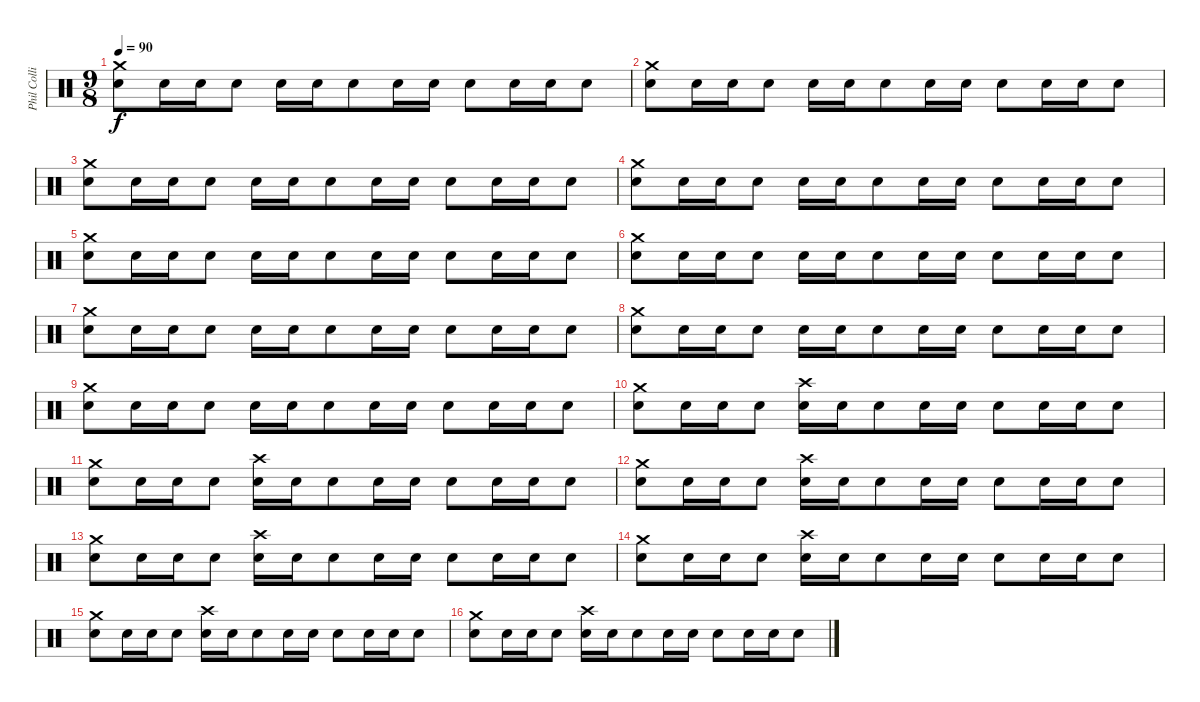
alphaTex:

\track ("Phil Collins (drums)" "Phil Colli") {instrument percussion}
\staff {score}
\articulation defaults
\ts (9 8)
\tempo 90
\clef neutral
\ks c
("Crash medium (hit)" "Electric Snare (hit)").8{dy f} "Electric Snare (hit)".16 "Electric Snare (hit)".16 "Electric Snare (hit)".8 "Electric Snare (hit)".16 "Electric Snare (hit)".16 "Electric Snare (hit)".8 "Electric Snare (hit)".16 "Electric Snare (hit)".16 "Electric Snare (hit)".8 "Electric Snare (hit)".16 "Electric Snare (hit)".16 "Electric Snare (hit)".8 |
("Crash medium (hit)" "Electric Snare (hit)").8 "Electric Snare (hit)".16 "Electric Snare (hit)".16 "Electric Snare (hit)".8 "Electric Snare (hit)".16 "Electric Snare (hit)".16 "Electric Snare (hit)".8 "Electric Snare (hit)".16 "Electric Snare (hit)".16 "Electric Snare (hit)".8 "Electric Snare (hit)".16 "Electric Snare (hit)".16 "Electric Snare (hit)".8 |
("Crash medium (hit)" "Electric Snare (hit)").8 "Electric Snare (hit)".16 "Electric Snare (hit)".16 "Electric Snare (hit)".8 "Electric Snare (hit)".16 "Electric Snare (hit)".16 "Electric Snare (hit)".8 "Electric Snare (hit)".16 "Electric Snare (hit)".16 "Electric Snare (hit)".8 "Electric Snare (hit)".16 "Electric Snare (hit)".16 "Electric Snare (hit)".8 |
("Crash medium (hit)" "Electric Snare (hit)").8 "Electric Snare (hit)".16 "Electric Snare (hit)".16 "Electric Snare (hit)".8 "Electric Snare (hit)".16 "Electric Snare (hit)".16 "Electric Snare (hit)".8 "Electric Snare (hit)".16 "Electric Snare (hit)".16 "Electric Snare (hit)".8 "Electric Snare (hit)".16 "Electric Snare (hit)".16 "Electric Snare (hit)".8 |
("Crash medium (hit)" "Electric Snare (hit)").8 "Electric Snare (hit)".16 "Electric Snare (hit)".16 "Electric Snare (hit)".8 "Electric Snare (hit)".16 "Electric Snare (hit)".16 "Electric Snare (hit)".8 "Electric Snare (hit)".16 "Electric Snare (hit)".16 "Electric Snare (hit)".8 "Electric Snare (hit)".16 "Electric Snare (hit)".16 "Electric Snare (hit)".8 |
("Crash medium (hit)" "Electric Snare (hit)").8 "Electric Snare (hit)".16 "Electric Snare (hit)".16 "Electric Snare (hit)".8 "Electric Snare (hit)".16 "Electric Snare (hit)".16 "Electric Snare (hit)".8 "Electric Snare (hit)".16 "Electric Snare (hit)".16 "Electric Snare (hit)".8 "Electric Snare (hit)".16 "Electric Snare (hit)".16 "Electric Snare (hit)".8 |
("Crash medium (hit)" "Electric Snare (hit)").8 "Electric Snare (hit)".16 "Electric Snare (hit)".16 "Electric Snare (hit)".8 "Electric Snare (hit)".16 "Electric Snare (hit)".16 "Electric Snare (hit)".8 "Electric Snare (hit)".16 "Electric Snare (hit)".16 "Electric Snare (hit)".8 "Electric Snare (hit)".16 "Electric Snare (hit)".16 "Electric Snare (hit)".8 |
("Crash medium (hit)" "Electric Snare (hit)").8 "Electric Snare (hit)".16 "Electric Snare (hit)".16 "Electric Snare (hit)".8 "Electric Snare (hit)".16 "Electric Snare (hit)".16 "Electric Snare (hit)".8 "Electric Snare (hit)".16 "Electric Snare (hit)".16 "Electric Snare (hit)".8 "Electric Snare (hit)".16 "Electric Snare (hit)".16 "Electric Snare (hit)".8 |
("Crash medium (hit)" "Electric Snare (hit)").8 "Electric Snare (hit)".16 "Electric Snare (hit)".16 "Electric Snare (hit)".8 "Electric Snare (hit)".16 "Electric Snare (hit)".16 "Electric Snare (hit)".8 "Electric Snare (hit)".16 "Electric Snare (hit)".16 "Electric Snare (hit)".8 "Electric Snare (hit)".16 "Electric Snare (hit)".16 "Electric Snare (hit)".8 |
("Crash medium (hit)" "Electric Snare (hit)").8 "Electric Snare (hit)".16 "Electric Snare (hit)".16 "Electric Snare (hit)".8 ("Crash high (hit)" "Electric Snare (hit)").16 "Electric Snare (hit)".16 "Electric Snare (hit)".8 "Electric Snare (hit)".16 "Electric Snare (hit)".16 "Electric Snare (hit)".8 "Electric Snare (hit)".16 "Electric Snare (hit)".16 "Electric Snare (hit)".8 |
("Crash medium (hit)" "Electric Snare (hit)").8 "Electric Snare (hit)".16 "Electric Snare (hit)".16 "Electric Snare (hit)".8 ("Crash high (hit)" "Electric Snare (hit)").16 "Electric Snare (hit)".16 "Electric Snare (hit)".8 "Electric Snare (hit)".16 "Electric Snare (hit)".16 "Electric Snare (hit)".8 "Electric Snare (hit)".16 "Electric Snare (hit)".16 "Electric Snare (hit)".8 |
("Crash medium (hit)" "Electric Snare (hit)").8 "Electric Snare (hit)".16 "Electric Snare (hit)".16 "Electric Snare (hit)".8 ("Crash high (hit)" "Electric Snare (hit)").16 "Electric Snare (hit)".16 "Electric Snare (hit)".8 "Electric Snare (hit)".16 "Electric Snare (hit)".16 "Electric Snare (hit)".8 "Electric Snare (hit)".16 "Electric Snare (hit)".16 "Electric Snare (hit)".8 |
("Crash medium (hit)" "Electric Snare (hit)").8 "Electric Snare (hit)".16 "Electric Snare (hit)".16 "Electric Snare (hit)".8 ("Crash high (hit)" "Electric Snare (hit)").16 "Electric Snare (hit)".16 "Electric Snare (hit)".8 "Electric Snare (hit)".16 "Electric Snare (hit)".16 "Electric Snare (hit)".8 "Electric Snare (hit)".16 "Electric Snare (hit)".16 "Electric Snare (hit)".8 |
("Crash medium (hit)" "Electric Snare (hit)").8 "Electric Snare (hit)".16 "Electric Snare (hit)".16 "Electric Snare (hit)".8 ("Crash high (hit)" "Electric Snare (hit)").16 "Electric Snare (hit)".16 "Electric Snare (hit)".8 "Electric Snare (hit)".16 "Electric Snare (hit)".16 "Electric Snare (hit)".8 "Electric Snare (hit)".16 "Electric Snare (hit)".16 "Electric Snare (hit)".8 |
("Crash medium (hit)" "Electric Snare (hit)").8 "Electric Snare (hit)".16 "Electric Snare (hit)".16 "Electric Snare (hit)".8 ("Crash high (hit)" "Electric Snare (hit)").16 "Electric Snare (hit)".16 "Electric Snare (hit)".8 "Electric Snare (hit)".16 "Electric Snare (hit)".16 "Electric Snare (hit)".8 "Electric Snare (hit)".16 "Electric Snare (hit)".16 "Electric Snare (hit)".8 |
("Crash medium (hit)" "Electric Snare (hit)").8 "Electric Snare (hit)".16 "Electric Snare (hit)".16 "Electric Snare (hit)".8 ("Crash high (hit)" "Electric Snare (hit)").16 "Electric Snare (hit)".16 "Electric Snare (hit)".8 "Electric Snare (hit)".16 "Electric Snare (hit)".16 "Electric Snare (hit)".8 "Electric Snare (hit)".16 "Electric Snare (hit)".16 "Electric Snare (hit)".8
